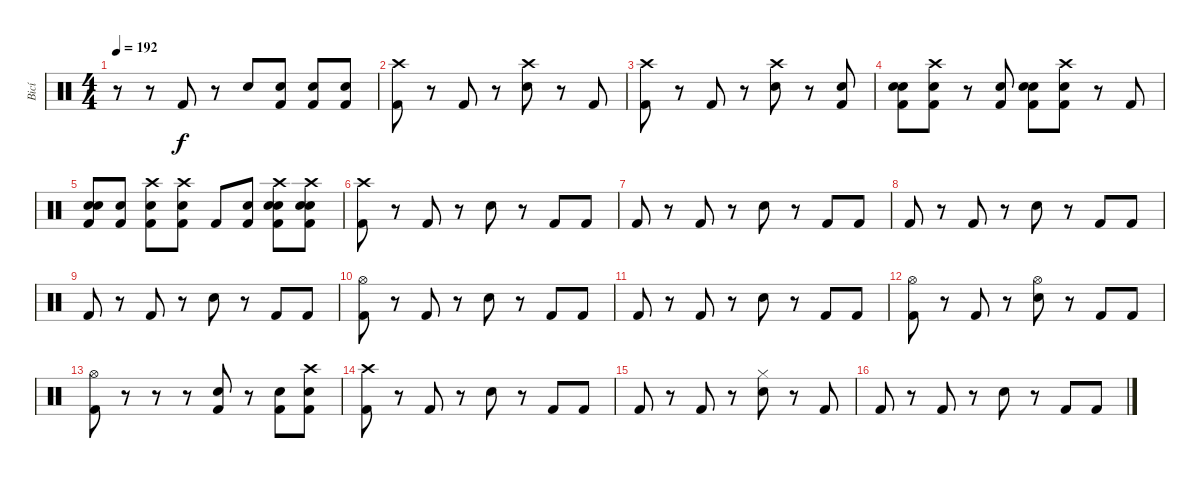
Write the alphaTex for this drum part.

\track ("Bicí" "Bicí") {instrument percussion}
\staff {score}
\articulation defaults
\ts (4 4)
\tempo 192
\clef neutral
\ks c
r.8{dy f} r.8 "Kick (hit) 2".8 r.8 "Electric Snare (hit)".8 ("Electric Snare (hit)" "Kick (hit) 2").8 ("Electric Snare (hit)" "Kick (hit) 2").8 ("Electric Snare (hit)" "Kick (hit) 2").8 |
("Crash high (hit)" "Kick (hit) 2").8 r.8 "Kick (hit) 2".8 r.8 ("Crash high (hit)" "Electric Snare (hit)").8 r.8 "Kick (hit) 2".8 |
("Crash high (hit)" "Kick (hit) 2").8 r.8 "Kick (hit) 2".8 r.8 ("Crash high (hit)" "Electric Snare (hit)").8 r.8 ("Electric Snare (hit)" "Kick (hit) 2").8 |
("Electric Snare (hit)" "Electric Snare (hit)" "Kick (hit) 2").8 ("Crash high (hit)" "Electric Snare (hit)" "Kick (hit) 2").8 r.8 ("Electric Snare (hit)" "Kick (hit) 2").8 ("Electric Snare (hit)" "Electric Snare (hit)" "Kick (hit) 2").8 ("Crash high (hit)" "Electric Snare (hit)" "Kick (hit) 2").8 r.8 "Kick (hit) 2".8 |
("Electric Snare (hit)" "Electric Snare (hit)" "Kick (hit) 2").8 ("Electric Snare (hit)" "Kick (hit) 2").8 ("Crash high (hit)" "Electric Snare (hit)" "Kick (hit) 2").8 ("Crash high (hit)" "Electric Snare (hit)" "Kick (hit) 2").8 "Kick (hit) 2".8 ("Electric Snare (hit)" "Kick (hit) 2").8 ("Crash high (hit)" "Electric Snare (hit)" "Electric Snare (hit)" "Kick (hit) 2").8 ("Crash high (hit)" "Electric Snare (hit)" "Electric Snare (hit)" "Kick (hit) 2").8 |
("Crash high (hit)" "Kick (hit) 2").8 r.8 "Kick (hit) 2".8 r.8 "Electric Snare (hit)".8 r.8 "Kick (hit) 2".8 "Kick (hit) 2".8 |
"Kick (hit) 2".8 r.8 "Kick (hit) 2".8 r.8 "Electric Snare (hit)".8 r.8 "Kick (hit) 2".8 "Kick (hit) 2".8 |
"Kick (hit) 2".8 r.8 "Kick (hit) 2".8 r.8 "Electric Snare (hit)".8 r.8 "Kick (hit) 2".8 "Kick (hit) 2".8 |
"Kick (hit) 2".8 r.8 "Kick (hit) 2".8 r.8 "Electric Snare (hit)".8 r.8 "Kick (hit) 2".8 "Kick (hit) 2".8 |
("Hi-Hat (open)" "Kick (hit) 2").8 r.8 "Kick (hit) 2".8 r.8 "Electric Snare (hit)".8 r.8 "Kick (hit) 2".8 "Kick (hit) 2".8 |
"Kick (hit) 2".8 r.8 "Kick (hit) 2".8 r.8 "Electric Snare (hit)".8 r.8 "Kick (hit) 2".8 "Kick (hit) 2".8 |
("Hi-Hat (open)" "Kick (hit) 2").8 r.8 "Kick (hit) 2".8 r.8 ("Hi-Hat (open)" "Electric Snare (hit)").8 r.8 "Kick (hit) 2".8 "Kick (hit) 2".8 |
("Hi-Hat (open)" "Kick (hit) 2").8 r.8 r.8 r.8 ("Electric Snare (hit)" "Kick (hit) 2").8 r.8 ("Electric Snare (hit)" "Kick (hit) 2").8 ("Crash high (hit)" "Electric Snare (hit)" "Kick (hit) 2").8 |
("Crash high (hit)" "Kick (hit) 2").8 r.8 "Kick (hit) 2".8 r.8 "Electric Snare (hit)".8 r.8 "Kick (hit) 2".8 "Kick (hit) 2".8 |
"Kick (hit) 2".8 r.8 "Kick (hit) 2".8 r.8 ("Hi-Hat (closed)" "Electric Snare (hit)").8 r.8 "Kick (hit) 2".8 |
"Kick (hit) 2".8 r.8 "Kick (hit) 2".8 r.8 "Electric Snare (hit)".8 r.8 "Kick (hit) 2".8 "Kick (hit) 2".8
